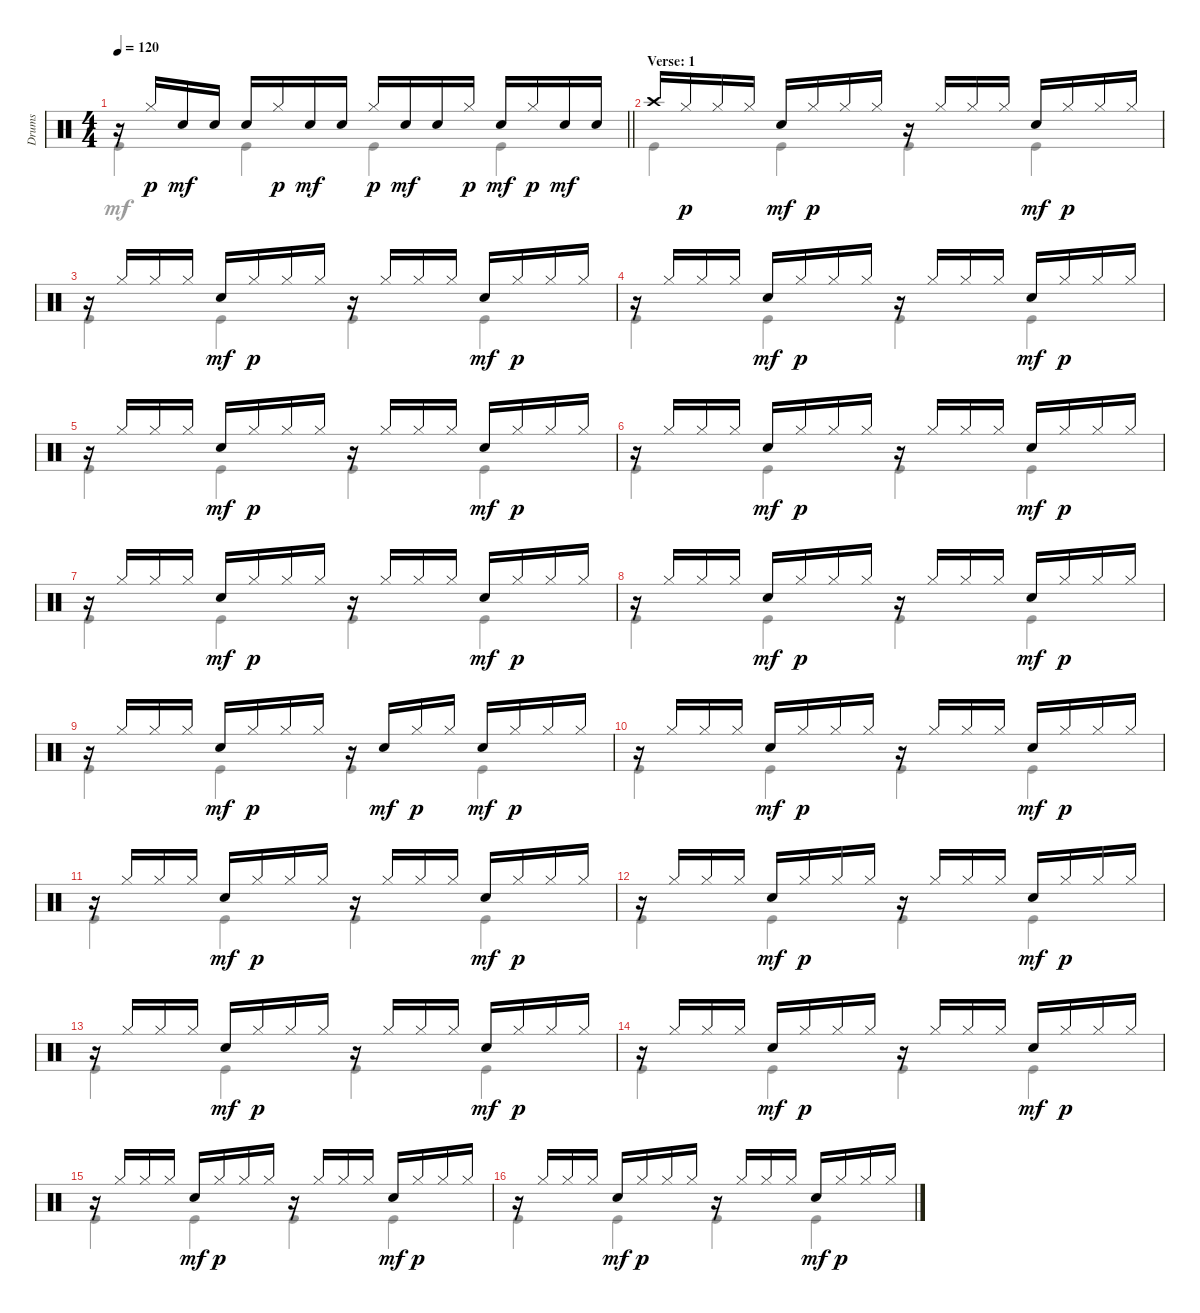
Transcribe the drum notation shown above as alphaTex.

\track ("Drums" "Drums") {instrument percussion}
\staff {score}
\articulation defaults
\voice
\ts (4 4)
\tempo 120
\clef neutral
\barLineRight lightlight
\ks c
r.16{dy p} "Hi-Hat (closed)".16 "Snare (hit) 2".16{dy mf} "Snare (hit) 2".16 "Snare (hit) 2".16 "Hi-Hat (closed)".16{dy p} "Snare (hit) 2".16{dy mf} "Snare (hit) 2".16 "Hi-Hat (closed)".16{dy p} "Snare (hit) 2".16{dy mf} "Snare (hit) 2".16 "Hi-Hat (closed)".16{dy p} "Snare (hit) 2".16{dy mf} "Hi-Hat (closed)".16{dy p} "Snare (hit) 2".16{dy mf} "Snare (hit) 2".16 |
\section ("" "Verse: 1")
"Crash high (hit)".16 "Hi-Hat (closed)".16{dy p} "Hi-Hat (closed)".16 "Hi-Hat (closed)".16 "Snare (hit) 2".16{dy mf} "Hi-Hat (closed)".16{dy p} "Hi-Hat (closed)".16 "Hi-Hat (closed)".16 r.16 "Hi-Hat (closed)".16 "Hi-Hat (closed)".16 "Hi-Hat (closed)".16 "Snare (hit) 2".16{dy mf} "Hi-Hat (closed)".16{dy p} "Hi-Hat (closed)".16 "Hi-Hat (closed)".16 |
r.16 "Hi-Hat (closed)".16 "Hi-Hat (closed)".16 "Hi-Hat (closed)".16 "Snare (hit) 2".16{dy mf} "Hi-Hat (closed)".16{dy p} "Hi-Hat (closed)".16 "Hi-Hat (closed)".16 r.16 "Hi-Hat (closed)".16 "Hi-Hat (closed)".16 "Hi-Hat (closed)".16 "Snare (hit) 2".16{dy mf} "Hi-Hat (closed)".16{dy p} "Hi-Hat (closed)".16 "Hi-Hat (closed)".16 |
r.16 "Hi-Hat (closed)".16 "Hi-Hat (closed)".16 "Hi-Hat (closed)".16 "Snare (hit) 2".16{dy mf} "Hi-Hat (closed)".16{dy p} "Hi-Hat (closed)".16 "Hi-Hat (closed)".16 r.16 "Hi-Hat (closed)".16 "Hi-Hat (closed)".16 "Hi-Hat (closed)".16 "Snare (hit) 2".16{dy mf} "Hi-Hat (closed)".16{dy p} "Hi-Hat (closed)".16 "Hi-Hat (closed)".16 |
r.16 "Hi-Hat (closed)".16 "Hi-Hat (closed)".16 "Hi-Hat (closed)".16 "Snare (hit) 2".16{dy mf} "Hi-Hat (closed)".16{dy p} "Hi-Hat (closed)".16 "Hi-Hat (closed)".16 r.16 "Hi-Hat (closed)".16 "Hi-Hat (closed)".16 "Hi-Hat (closed)".16 "Snare (hit) 2".16{dy mf} "Hi-Hat (closed)".16{dy p} "Hi-Hat (closed)".16 "Hi-Hat (closed)".16 |
r.16 "Hi-Hat (closed)".16 "Hi-Hat (closed)".16 "Hi-Hat (closed)".16 "Snare (hit) 2".16{dy mf} "Hi-Hat (closed)".16{dy p} "Hi-Hat (closed)".16 "Hi-Hat (closed)".16 r.16 "Hi-Hat (closed)".16 "Hi-Hat (closed)".16 "Hi-Hat (closed)".16 "Snare (hit) 2".16{dy mf} "Hi-Hat (closed)".16{dy p} "Hi-Hat (closed)".16 "Hi-Hat (closed)".16 |
r.16 "Hi-Hat (closed)".16 "Hi-Hat (closed)".16 "Hi-Hat (closed)".16 "Snare (hit) 2".16{dy mf} "Hi-Hat (closed)".16{dy p} "Hi-Hat (closed)".16 "Hi-Hat (closed)".16 r.16 "Hi-Hat (closed)".16 "Hi-Hat (closed)".16 "Hi-Hat (closed)".16 "Snare (hit) 2".16{dy mf} "Hi-Hat (closed)".16{dy p} "Hi-Hat (closed)".16 "Hi-Hat (closed)".16 |
r.16 "Hi-Hat (closed)".16 "Hi-Hat (closed)".16 "Hi-Hat (closed)".16 "Snare (hit) 2".16{dy mf} "Hi-Hat (closed)".16{dy p} "Hi-Hat (closed)".16 "Hi-Hat (closed)".16 r.16 "Hi-Hat (closed)".16 "Hi-Hat (closed)".16 "Hi-Hat (closed)".16 "Snare (hit) 2".16{dy mf} "Hi-Hat (closed)".16{dy p} "Hi-Hat (closed)".16 "Hi-Hat (closed)".16 |
r.16 "Hi-Hat (closed)".16 "Hi-Hat (closed)".16 "Hi-Hat (closed)".16 "Snare (hit) 2".16{dy mf} "Hi-Hat (closed)".16{dy p} "Hi-Hat (closed)".16 "Hi-Hat (closed)".16 r.16 "Snare (hit) 2".16{dy mf} "Hi-Hat (closed)".16{dy p} "Hi-Hat (closed)".16 "Snare (hit) 2".16{dy mf} "Hi-Hat (closed)".16{dy p} "Hi-Hat (closed)".16 "Hi-Hat (closed)".16 |
r.16 "Hi-Hat (closed)".16 "Hi-Hat (closed)".16 "Hi-Hat (closed)".16 "Snare (hit) 2".16{dy mf} "Hi-Hat (closed)".16{dy p} "Hi-Hat (closed)".16 "Hi-Hat (closed)".16 r.16 "Hi-Hat (closed)".16 "Hi-Hat (closed)".16 "Hi-Hat (closed)".16 "Snare (hit) 2".16{dy mf} "Hi-Hat (closed)".16{dy p} "Hi-Hat (closed)".16 "Hi-Hat (closed)".16 |
r.16 "Hi-Hat (closed)".16 "Hi-Hat (closed)".16 "Hi-Hat (closed)".16 "Snare (hit) 2".16{dy mf} "Hi-Hat (closed)".16{dy p} "Hi-Hat (closed)".16 "Hi-Hat (closed)".16 r.16 "Hi-Hat (closed)".16 "Hi-Hat (closed)".16 "Hi-Hat (closed)".16 "Snare (hit) 2".16{dy mf} "Hi-Hat (closed)".16{dy p} "Hi-Hat (closed)".16 "Hi-Hat (closed)".16 |
r.16 "Hi-Hat (closed)".16 "Hi-Hat (closed)".16 "Hi-Hat (closed)".16 "Snare (hit) 2".16{dy mf} "Hi-Hat (closed)".16{dy p} "Hi-Hat (closed)".16 "Hi-Hat (closed)".16 r.16 "Hi-Hat (closed)".16 "Hi-Hat (closed)".16 "Hi-Hat (closed)".16 "Snare (hit) 2".16{dy mf} "Hi-Hat (closed)".16{dy p} "Hi-Hat (closed)".16 "Hi-Hat (closed)".16 |
r.16 "Hi-Hat (closed)".16 "Hi-Hat (closed)".16 "Hi-Hat (closed)".16 "Snare (hit) 2".16{dy mf} "Hi-Hat (closed)".16{dy p} "Hi-Hat (closed)".16 "Hi-Hat (closed)".16 r.16 "Hi-Hat (closed)".16 "Hi-Hat (closed)".16 "Hi-Hat (closed)".16 "Snare (hit) 2".16{dy mf} "Hi-Hat (closed)".16{dy p} "Hi-Hat (closed)".16 "Hi-Hat (closed)".16 |
r.16 "Hi-Hat (closed)".16 "Hi-Hat (closed)".16 "Hi-Hat (closed)".16 "Snare (hit) 2".16{dy mf} "Hi-Hat (closed)".16{dy p} "Hi-Hat (closed)".16 "Hi-Hat (closed)".16 r.16 "Hi-Hat (closed)".16 "Hi-Hat (closed)".16 "Hi-Hat (closed)".16 "Snare (hit) 2".16{dy mf} "Hi-Hat (closed)".16{dy p} "Hi-Hat (closed)".16 "Hi-Hat (closed)".16 |
r.16 "Hi-Hat (closed)".16 "Hi-Hat (closed)".16 "Hi-Hat (closed)".16 "Snare (hit) 2".16{dy mf} "Hi-Hat (closed)".16{dy p} "Hi-Hat (closed)".16 "Hi-Hat (closed)".16 r.16 "Hi-Hat (closed)".16 "Hi-Hat (closed)".16 "Hi-Hat (closed)".16 "Snare (hit) 2".16{dy mf} "Hi-Hat (closed)".16{dy p} "Hi-Hat (closed)".16 "Hi-Hat (closed)".16 |
r.16 "Hi-Hat (closed)".16 "Hi-Hat (closed)".16 "Hi-Hat (closed)".16 "Snare (hit) 2".16{dy mf} "Hi-Hat (closed)".16{dy p} "Hi-Hat (closed)".16 "Hi-Hat (closed)".16 r.16 "Hi-Hat (closed)".16 "Hi-Hat (closed)".16 "Hi-Hat (closed)".16 "Snare (hit) 2".16{dy mf} "Hi-Hat (closed)".16{dy p} "Hi-Hat (closed)".16 "Hi-Hat (closed)".16
\voice
\clef neutral
\ottava regular
\simile none
\barLineRight lightlight
\ks c "Kick (hit)".4{dy mf} "Kick (hit)".4 "Kick (hit)".4 "Kick (hit)".4
|
"Kick (hit)".4 "Kick (hit)".4 "Kick (hit)".4 "Kick (hit)".4 |
"Kick (hit)".4 "Kick (hit)".4 "Kick (hit)".4 "Kick (hit)".4 |
"Kick (hit)".4 "Kick (hit)".4 "Kick (hit)".4 "Kick (hit)".4 |
"Kick (hit)".4 "Kick (hit)".4 "Kick (hit)".4 "Kick (hit)".4 |
"Kick (hit)".4 "Kick (hit)".4 "Kick (hit)".4 "Kick (hit)".4 |
"Kick (hit)".4 "Kick (hit)".4 "Kick (hit)".4 "Kick (hit)".4 |
"Kick (hit)".4 "Kick (hit)".4 "Kick (hit)".4 "Kick (hit)".4 |
"Kick (hit)".4 "Kick (hit)".4 "Kick (hit)".4 "Kick (hit)".4 |
"Kick (hit)".4 "Kick (hit)".4 "Kick (hit)".4 "Kick (hit)".4 |
"Kick (hit)".4 "Kick (hit)".4 "Kick (hit)".4 "Kick (hit)".4 |
"Kick (hit)".4 "Kick (hit)".4 "Kick (hit)".4 "Kick (hit)".4 |
"Kick (hit)".4 "Kick (hit)".4 "Kick (hit)".4 "Kick (hit)".4 |
"Kick (hit)".4 "Kick (hit)".4 "Kick (hit)".4 "Kick (hit)".4 |
"Kick (hit)".4 "Kick (hit)".4 "Kick (hit)".4 "Kick (hit)".4 |
"Kick (hit)".4 "Kick (hit)".4 "Kick (hit)".4 "Kick (hit)".4
